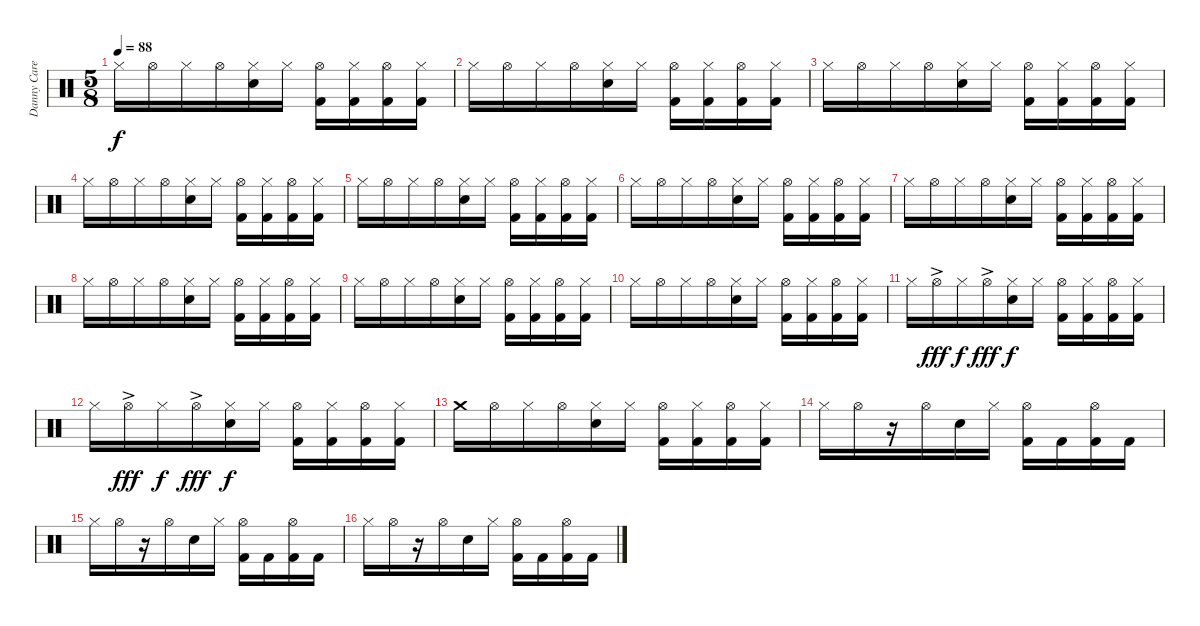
\track ("Danny Carey" "Danny Care") {instrument percussion}
\staff {score}
\articulation defaults
\ts (5 8)
\tempo 88
\clef neutral
\ks c "Hi-Hat (closed)".16{dy f} "Hi-Hat (open)".16 "Hi-Hat (closed)".16 "Hi-Hat (open)".16
("Hi-Hat (closed)" "Electric Snare (hit)").16 "Hi-Hat (closed)".16 ("Hi-Hat (open)" "Kick (hit) 2").16 ("Hi-Hat (closed)" "Kick (hit) 2").16 ("Hi-Hat (open)" "Kick (hit) 2").16 ("Hi-Hat (closed)" "Kick (hit) 2").16 |
"Hi-Hat (closed)".16 "Hi-Hat (open)".16 "Hi-Hat (closed)".16 "Hi-Hat (open)".16 ("Hi-Hat (closed)" "Electric Snare (hit)").16 "Hi-Hat (closed)".16 ("Hi-Hat (open)" "Kick (hit) 2").16 ("Hi-Hat (closed)" "Kick (hit) 2").16 ("Hi-Hat (open)" "Kick (hit) 2").16 ("Hi-Hat (closed)" "Kick (hit) 2").16 |
"Hi-Hat (closed)".16 "Hi-Hat (open)".16 "Hi-Hat (closed)".16 "Hi-Hat (open)".16 ("Hi-Hat (closed)" "Electric Snare (hit)").16 "Hi-Hat (closed)".16 ("Hi-Hat (open)" "Kick (hit) 2").16 ("Hi-Hat (closed)" "Kick (hit) 2").16 ("Hi-Hat (open)" "Kick (hit) 2").16 ("Hi-Hat (closed)" "Kick (hit) 2").16 |
"Hi-Hat (closed)".16 "Hi-Hat (open)".16 "Hi-Hat (closed)".16 "Hi-Hat (open)".16 ("Hi-Hat (closed)" "Electric Snare (hit)").16 "Hi-Hat (closed)".16 ("Hi-Hat (open)" "Kick (hit) 2").16 ("Hi-Hat (closed)" "Kick (hit) 2").16 ("Hi-Hat (open)" "Kick (hit) 2").16 ("Hi-Hat (closed)" "Kick (hit) 2").16 |
"Hi-Hat (closed)".16 "Hi-Hat (open)".16 "Hi-Hat (closed)".16 "Hi-Hat (open)".16 ("Hi-Hat (closed)" "Electric Snare (hit)").16 "Hi-Hat (closed)".16 ("Hi-Hat (open)" "Kick (hit) 2").16 ("Hi-Hat (closed)" "Kick (hit) 2").16 ("Hi-Hat (open)" "Kick (hit) 2").16 ("Hi-Hat (closed)" "Kick (hit) 2").16 |
"Hi-Hat (closed)".16 "Hi-Hat (open)".16 "Hi-Hat (closed)".16 "Hi-Hat (open)".16 ("Hi-Hat (closed)" "Electric Snare (hit)").16 "Hi-Hat (closed)".16 ("Hi-Hat (open)" "Kick (hit) 2").16 ("Hi-Hat (closed)" "Kick (hit) 2").16 ("Hi-Hat (open)" "Kick (hit) 2").16 ("Hi-Hat (closed)" "Kick (hit) 2").16 |
"Hi-Hat (closed)".16 "Hi-Hat (open)".16 "Hi-Hat (closed)".16 "Hi-Hat (open)".16 ("Hi-Hat (closed)" "Electric Snare (hit)").16 "Hi-Hat (closed)".16 ("Hi-Hat (open)" "Kick (hit) 2").16 ("Hi-Hat (closed)" "Kick (hit) 2").16 ("Hi-Hat (open)" "Kick (hit) 2").16 ("Hi-Hat (closed)" "Kick (hit) 2").16 |
"Hi-Hat (closed)".16 "Hi-Hat (open)".16 "Hi-Hat (closed)".16 "Hi-Hat (open)".16 ("Hi-Hat (closed)" "Electric Snare (hit)").16 "Hi-Hat (closed)".16 ("Hi-Hat (open)" "Kick (hit) 2").16 ("Hi-Hat (closed)" "Kick (hit) 2").16 ("Hi-Hat (open)" "Kick (hit) 2").16 ("Hi-Hat (closed)" "Kick (hit) 2").16 |
"Hi-Hat (closed)".16 "Hi-Hat (open)".16 "Hi-Hat (closed)".16 "Hi-Hat (open)".16 ("Hi-Hat (closed)" "Electric Snare (hit)").16 "Hi-Hat (closed)".16 ("Hi-Hat (open)" "Kick (hit) 2").16 ("Hi-Hat (closed)" "Kick (hit) 2").16 ("Hi-Hat (open)" "Kick (hit) 2").16 ("Hi-Hat (closed)" "Kick (hit) 2").16 |
"Hi-Hat (closed)".16 "Hi-Hat (open)".16 "Hi-Hat (closed)".16 "Hi-Hat (open)".16 ("Hi-Hat (closed)" "Electric Snare (hit)").16 "Hi-Hat (closed)".16 ("Hi-Hat (open)" "Kick (hit) 2").16 ("Hi-Hat (closed)" "Kick (hit) 2").16 ("Hi-Hat (open)" "Kick (hit) 2").16 ("Hi-Hat (closed)" "Kick (hit) 2").16 |
"Hi-Hat (closed)".16 "Hi-Hat (open)"{ac}.16{dy fff} "Hi-Hat (closed)".16{dy f} "Hi-Hat (open)"{ac}.16{dy fff} ("Hi-Hat (closed)" "Electric Snare (hit)").16{dy f} "Hi-Hat (closed)".16 ("Hi-Hat (open)" "Kick (hit) 2").16 ("Hi-Hat (closed)" "Kick (hit) 2").16 ("Hi-Hat (open)" "Kick (hit) 2").16 ("Hi-Hat (closed)" "Kick (hit) 2").16 |
"Hi-Hat (closed)".16 "Hi-Hat (open)"{ac}.16{dy fff} "Hi-Hat (closed)".16{dy f} "Hi-Hat (open)"{ac}.16{dy fff} ("Hi-Hat (closed)" "Electric Snare (hit)").16{dy f} "Hi-Hat (closed)".16 ("Hi-Hat (open)" "Kick (hit) 2").16 ("Hi-Hat (closed)" "Kick (hit) 2").16 ("Hi-Hat (open)" "Kick (hit) 2").16 ("Hi-Hat (closed)" "Kick (hit) 2").16 |
"Crash medium (hit)".16 "Hi-Hat (open)".16 "Hi-Hat (closed)".16 "Hi-Hat (open)".16 ("Hi-Hat (closed)" "Electric Snare (hit)").16 "Hi-Hat (closed)".16 ("Hi-Hat (open)" "Kick (hit) 2").16 ("Hi-Hat (closed)" "Kick (hit) 2").16 ("Hi-Hat (open)" "Kick (hit) 2").16 ("Hi-Hat (closed)" "Kick (hit) 2").16 |
"Hi-Hat (closed)".16 "Hi-Hat (open)".16 r.16 "Hi-Hat (open)".16 "Electric Snare (hit)".16 "Hi-Hat (closed)".16 ("Hi-Hat (open)" "Kick (hit) 2").16 "Kick (hit) 2".16 ("Hi-Hat (open)" "Kick (hit) 2").16 "Kick (hit) 2".16 |
"Hi-Hat (closed)".16 "Hi-Hat (open)".16 r.16 "Hi-Hat (open)".16 "Electric Snare (hit)".16 "Hi-Hat (closed)".16 ("Hi-Hat (open)" "Kick (hit) 2").16 "Kick (hit) 2".16 ("Hi-Hat (open)" "Kick (hit) 2").16 "Kick (hit) 2".16 |
"Hi-Hat (closed)".16 "Hi-Hat (open)".16 r.16 "Hi-Hat (open)".16 "Electric Snare (hit)".16 "Hi-Hat (closed)".16 ("Hi-Hat (open)" "Kick (hit) 2").16 "Kick (hit) 2".16 ("Hi-Hat (open)" "Kick (hit) 2").16 "Kick (hit) 2".16
